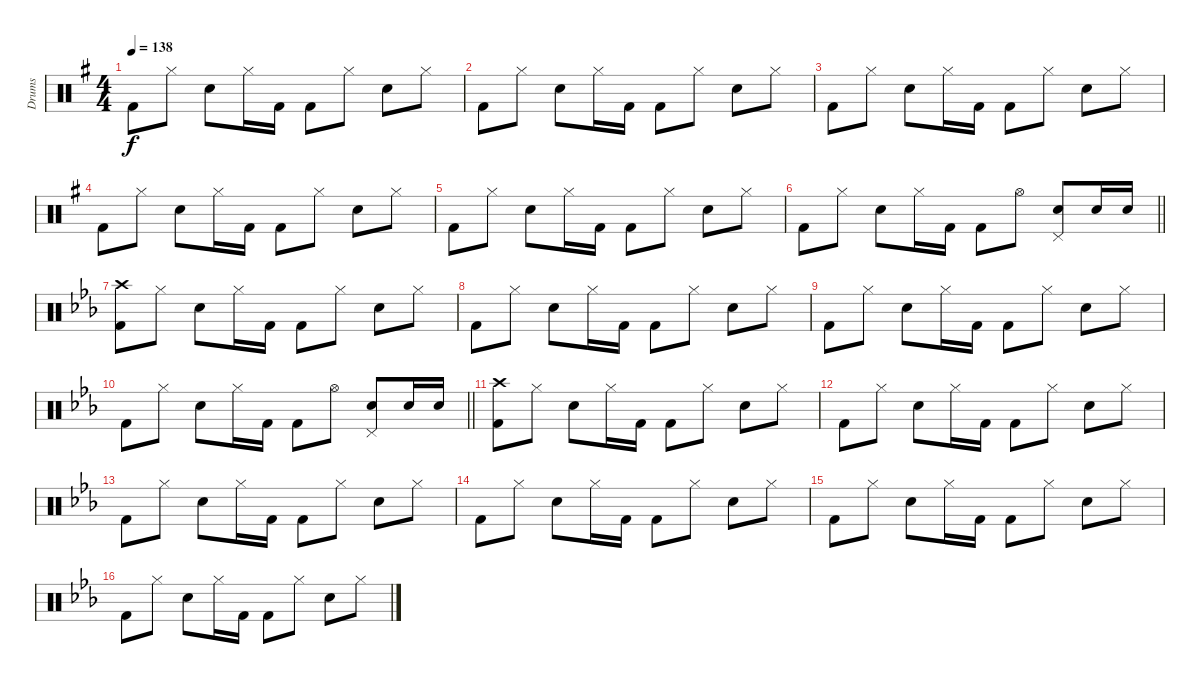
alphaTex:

\track ("Drums" "Drums") {instrument percussion}
\staff {score}
\articulation defaults
\ts (4 4)
\tempo 138
\clef neutral
\ks g "Kick (hit) 2".8{dy f} "Hi-Hat (closed)".8 "Electric Snare (hit)".8 "Hi-Hat (closed)".16 "Kick (hit) 2".16 "Kick (hit) 2".8 "Hi-Hat (closed)".8 "Electric Snare (hit)".8 "Hi-Hat (closed)".8
|
"Kick (hit) 2".8 "Hi-Hat (closed)".8 "Electric Snare (hit)".8 "Hi-Hat (closed)".16 "Kick (hit) 2".16 "Kick (hit) 2".8 "Hi-Hat (closed)".8 "Electric Snare (hit)".8 "Hi-Hat (closed)".8 |
"Kick (hit) 2".8 "Hi-Hat (closed)".8 "Electric Snare (hit)".8 "Hi-Hat (closed)".16 "Kick (hit) 2".16 "Kick (hit) 2".8 "Hi-Hat (closed)".8 "Electric Snare (hit)".8 "Hi-Hat (closed)".8 |
"Kick (hit) 2".8 "Hi-Hat (closed)".8 "Electric Snare (hit)".8 "Hi-Hat (closed)".16 "Kick (hit) 2".16 "Kick (hit) 2".8 "Hi-Hat (closed)".8 "Electric Snare (hit)".8 "Hi-Hat (closed)".8 |
"Kick (hit) 2".8 "Hi-Hat (closed)".8 "Electric Snare (hit)".8 "Hi-Hat (closed)".16 "Kick (hit) 2".16 "Kick (hit) 2".8 "Hi-Hat (closed)".8 "Electric Snare (hit)".8 "Hi-Hat (closed)".8 |
\barLineRight lightlight "Kick (hit) 2".8 "Hi-Hat (closed)".8 "Electric Snare (hit)".8 "Hi-Hat (closed)".16 "Kick (hit) 2".16 "Kick (hit) 2".8 "Hi-Hat (open)".8
("Electric Snare (hit)" "Pedal Hi-Hat (hit)").8 "Electric Snare (hit)".16 "Electric Snare (hit)".16 |
\section ("" "")
\ks eb
("Crash high (hit)" "Kick (hit) 2").8 "Hi-Hat (closed)".8 "Electric Snare (hit)".8 "Hi-Hat (closed)".16 "Kick (hit) 2".16 "Kick (hit) 2".8 "Hi-Hat (closed)".8 "Electric Snare (hit)".8 "Hi-Hat (closed)".8 |
"Kick (hit) 2".8 "Hi-Hat (closed)".8 "Electric Snare (hit)".8 "Hi-Hat (closed)".16 "Kick (hit) 2".16 "Kick (hit) 2".8 "Hi-Hat (closed)".8 "Electric Snare (hit)".8 "Hi-Hat (closed)".8 |
"Kick (hit) 2".8 "Hi-Hat (closed)".8 "Electric Snare (hit)".8 "Hi-Hat (closed)".16 "Kick (hit) 2".16 "Kick (hit) 2".8 "Hi-Hat (closed)".8 "Electric Snare (hit)".8 "Hi-Hat (closed)".8 |
\barLineRight lightlight "Kick (hit) 2".8 "Hi-Hat (closed)".8 "Electric Snare (hit)".8 "Hi-Hat (closed)".16 "Kick (hit) 2".16 "Kick (hit) 2".8 "Hi-Hat (open)".8
("Electric Snare (hit)" "Pedal Hi-Hat (hit)").8 "Electric Snare (hit)".16 "Electric Snare (hit)".16 |
\section ("" "")
("Crash high (hit)" "Kick (hit) 2").8 "Hi-Hat (closed)".8 "Electric Snare (hit)".8 "Hi-Hat (closed)".16 "Kick (hit) 2".16 "Kick (hit) 2".8 "Hi-Hat (closed)".8 "Electric Snare (hit)".8 "Hi-Hat (closed)".8 |
"Kick (hit) 2".8 "Hi-Hat (closed)".8 "Electric Snare (hit)".8 "Hi-Hat (closed)".16 "Kick (hit) 2".16 "Kick (hit) 2".8 "Hi-Hat (closed)".8 "Electric Snare (hit)".8 "Hi-Hat (closed)".8 |
"Kick (hit) 2".8 "Hi-Hat (closed)".8 "Electric Snare (hit)".8 "Hi-Hat (closed)".16 "Kick (hit) 2".16 "Kick (hit) 2".8 "Hi-Hat (closed)".8 "Electric Snare (hit)".8 "Hi-Hat (closed)".8 |
"Kick (hit) 2".8 "Hi-Hat (closed)".8 "Electric Snare (hit)".8 "Hi-Hat (closed)".16 "Kick (hit) 2".16 "Kick (hit) 2".8 "Hi-Hat (closed)".8 "Electric Snare (hit)".8 "Hi-Hat (closed)".8 |
"Kick (hit) 2".8 "Hi-Hat (closed)".8 "Electric Snare (hit)".8 "Hi-Hat (closed)".16 "Kick (hit) 2".16 "Kick (hit) 2".8 "Hi-Hat (closed)".8 "Electric Snare (hit)".8 "Hi-Hat (closed)".8 |
"Kick (hit) 2".8 "Hi-Hat (closed)".8 "Electric Snare (hit)".8 "Hi-Hat (closed)".16 "Kick (hit) 2".16 "Kick (hit) 2".8 "Hi-Hat (closed)".8 "Electric Snare (hit)".8 "Hi-Hat (closed)".8
